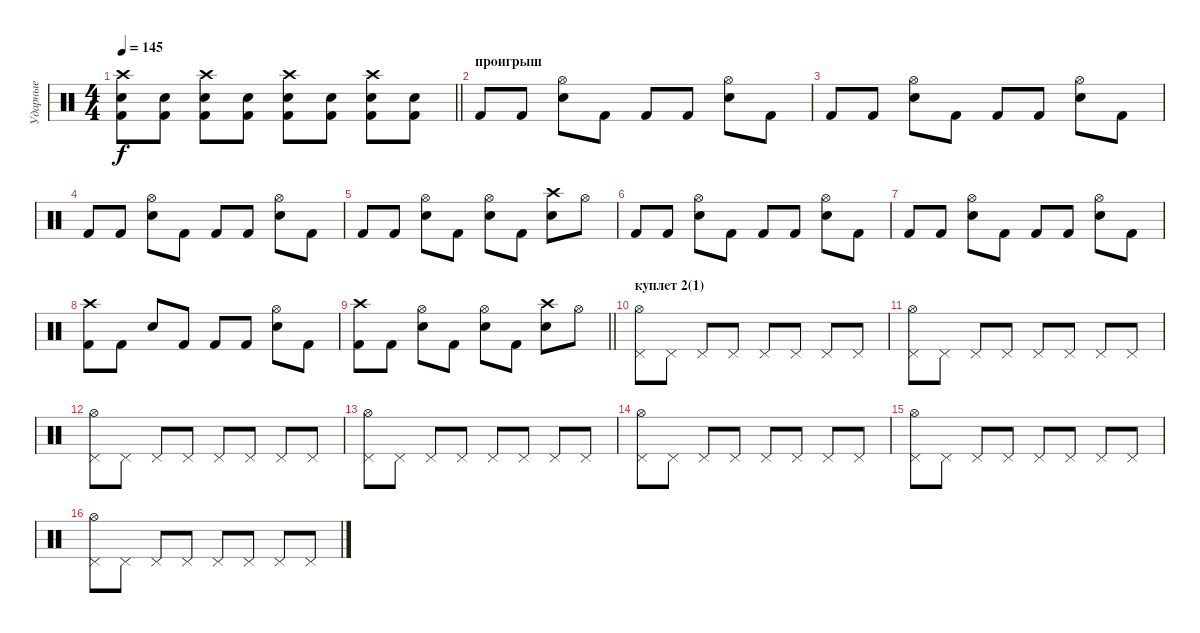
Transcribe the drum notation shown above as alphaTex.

\track ("Ударные" "Ударные") {instrument percussion}
\staff {score}
\articulation defaults
\ts (4 4)
\tempo 145
\clef neutral
\barLineRight lightlight
\ks c
("Crash high (hit)" "Electric Snare (hit)" "Kick (hit) 2").8{dy f} ("Electric Snare (hit)" "Kick (hit) 2").8 ("Crash high (hit)" "Electric Snare (hit)" "Kick (hit) 2").8 ("Electric Snare (hit)" "Kick (hit) 2").8 ("Crash high (hit)" "Electric Snare (hit)" "Kick (hit) 2").8 ("Electric Snare (hit)" "Kick (hit) 2").8 ("Crash high (hit)" "Electric Snare (hit)" "Kick (hit) 2").8 ("Electric Snare (hit)" "Kick (hit) 2").8 |
\section ("" "проигрыш")
"Kick (hit) 2".8 "Kick (hit) 2".8 ("Hi-Hat (open)" "Electric Snare (hit)").8 "Kick (hit) 2".8 "Kick (hit) 2".8 "Kick (hit) 2".8 ("Hi-Hat (open)" "Electric Snare (hit)").8 "Kick (hit) 2".8 |
"Kick (hit) 2".8 "Kick (hit) 2".8 ("Hi-Hat (open)" "Electric Snare (hit)").8 "Kick (hit) 2".8 "Kick (hit) 2".8 "Kick (hit) 2".8 ("Hi-Hat (open)" "Electric Snare (hit)").8 "Kick (hit) 2".8 |
"Kick (hit) 2".8 "Kick (hit) 2".8 ("Hi-Hat (open)" "Electric Snare (hit)").8 "Kick (hit) 2".8 "Kick (hit) 2".8 "Kick (hit) 2".8 ("Hi-Hat (open)" "Electric Snare (hit)").8 "Kick (hit) 2".8 |
"Kick (hit) 2".8 "Kick (hit) 2".8 ("Hi-Hat (open)" "Electric Snare (hit)").8 "Kick (hit) 2".8 ("Hi-Hat (open)" "Electric Snare (hit)").8 "Kick (hit) 2".8 ("Crash high (hit)" "Electric Snare (hit)").8 "Hi-Hat (open)".8 |
"Kick (hit) 2".8 "Kick (hit) 2".8 ("Hi-Hat (open)" "Electric Snare (hit)").8 "Kick (hit) 2".8 "Kick (hit) 2".8 "Kick (hit) 2".8 ("Hi-Hat (open)" "Electric Snare (hit)").8 "Kick (hit) 2".8 |
"Kick (hit) 2".8 "Kick (hit) 2".8 ("Hi-Hat (open)" "Electric Snare (hit)").8 "Kick (hit) 2".8 "Kick (hit) 2".8 "Kick (hit) 2".8 ("Hi-Hat (open)" "Electric Snare (hit)").8 "Kick (hit) 2".8 |
("Crash high (hit)" "Kick (hit) 2").8 "Kick (hit) 2".8 "Electric Snare (hit)".8 "Kick (hit) 2".8 "Kick (hit) 2".8 "Kick (hit) 2".8 ("Hi-Hat (open)" "Electric Snare (hit)").8 "Kick (hit) 2".8 |
\barLineRight lightlight
("Crash high (hit)" "Kick (hit) 2").8 "Kick (hit) 2".8 ("Hi-Hat (open)" "Electric Snare (hit)").8 "Kick (hit) 2".8 ("Hi-Hat (open)" "Electric Snare (hit)").8 "Kick (hit) 2".8 ("Crash high (hit)" "Electric Snare (hit)").8 "Hi-Hat (open)".8 |
\section ("" "куплет 2(1)")
("Hi-Hat (open)" "Pedal Hi-Hat (hit)").8 "Pedal Hi-Hat (hit)".8 "Pedal Hi-Hat (hit)".8 "Pedal Hi-Hat (hit)".8 "Pedal Hi-Hat (hit)".8 "Pedal Hi-Hat (hit)".8 "Pedal Hi-Hat (hit)".8 "Pedal Hi-Hat (hit)".8 |
("Hi-Hat (open)" "Pedal Hi-Hat (hit)").8 "Pedal Hi-Hat (hit)".8 "Pedal Hi-Hat (hit)".8 "Pedal Hi-Hat (hit)".8 "Pedal Hi-Hat (hit)".8 "Pedal Hi-Hat (hit)".8 "Pedal Hi-Hat (hit)".8 "Pedal Hi-Hat (hit)".8 |
("Hi-Hat (open)" "Pedal Hi-Hat (hit)").8 "Pedal Hi-Hat (hit)".8 "Pedal Hi-Hat (hit)".8 "Pedal Hi-Hat (hit)".8 "Pedal Hi-Hat (hit)".8 "Pedal Hi-Hat (hit)".8 "Pedal Hi-Hat (hit)".8 "Pedal Hi-Hat (hit)".8 |
("Hi-Hat (open)" "Pedal Hi-Hat (hit)").8 "Pedal Hi-Hat (hit)".8 "Pedal Hi-Hat (hit)".8 "Pedal Hi-Hat (hit)".8 "Pedal Hi-Hat (hit)".8 "Pedal Hi-Hat (hit)".8 "Pedal Hi-Hat (hit)".8 "Pedal Hi-Hat (hit)".8 |
("Hi-Hat (open)" "Pedal Hi-Hat (hit)").8 "Pedal Hi-Hat (hit)".8 "Pedal Hi-Hat (hit)".8 "Pedal Hi-Hat (hit)".8 "Pedal Hi-Hat (hit)".8 "Pedal Hi-Hat (hit)".8 "Pedal Hi-Hat (hit)".8 "Pedal Hi-Hat (hit)".8 |
("Hi-Hat (open)" "Pedal Hi-Hat (hit)").8 "Pedal Hi-Hat (hit)".8 "Pedal Hi-Hat (hit)".8 "Pedal Hi-Hat (hit)".8 "Pedal Hi-Hat (hit)".8 "Pedal Hi-Hat (hit)".8 "Pedal Hi-Hat (hit)".8 "Pedal Hi-Hat (hit)".8 |
("Hi-Hat (open)" "Pedal Hi-Hat (hit)").8 "Pedal Hi-Hat (hit)".8 "Pedal Hi-Hat (hit)".8 "Pedal Hi-Hat (hit)".8 "Pedal Hi-Hat (hit)".8 "Pedal Hi-Hat (hit)".8 "Pedal Hi-Hat (hit)".8 "Pedal Hi-Hat (hit)".8
